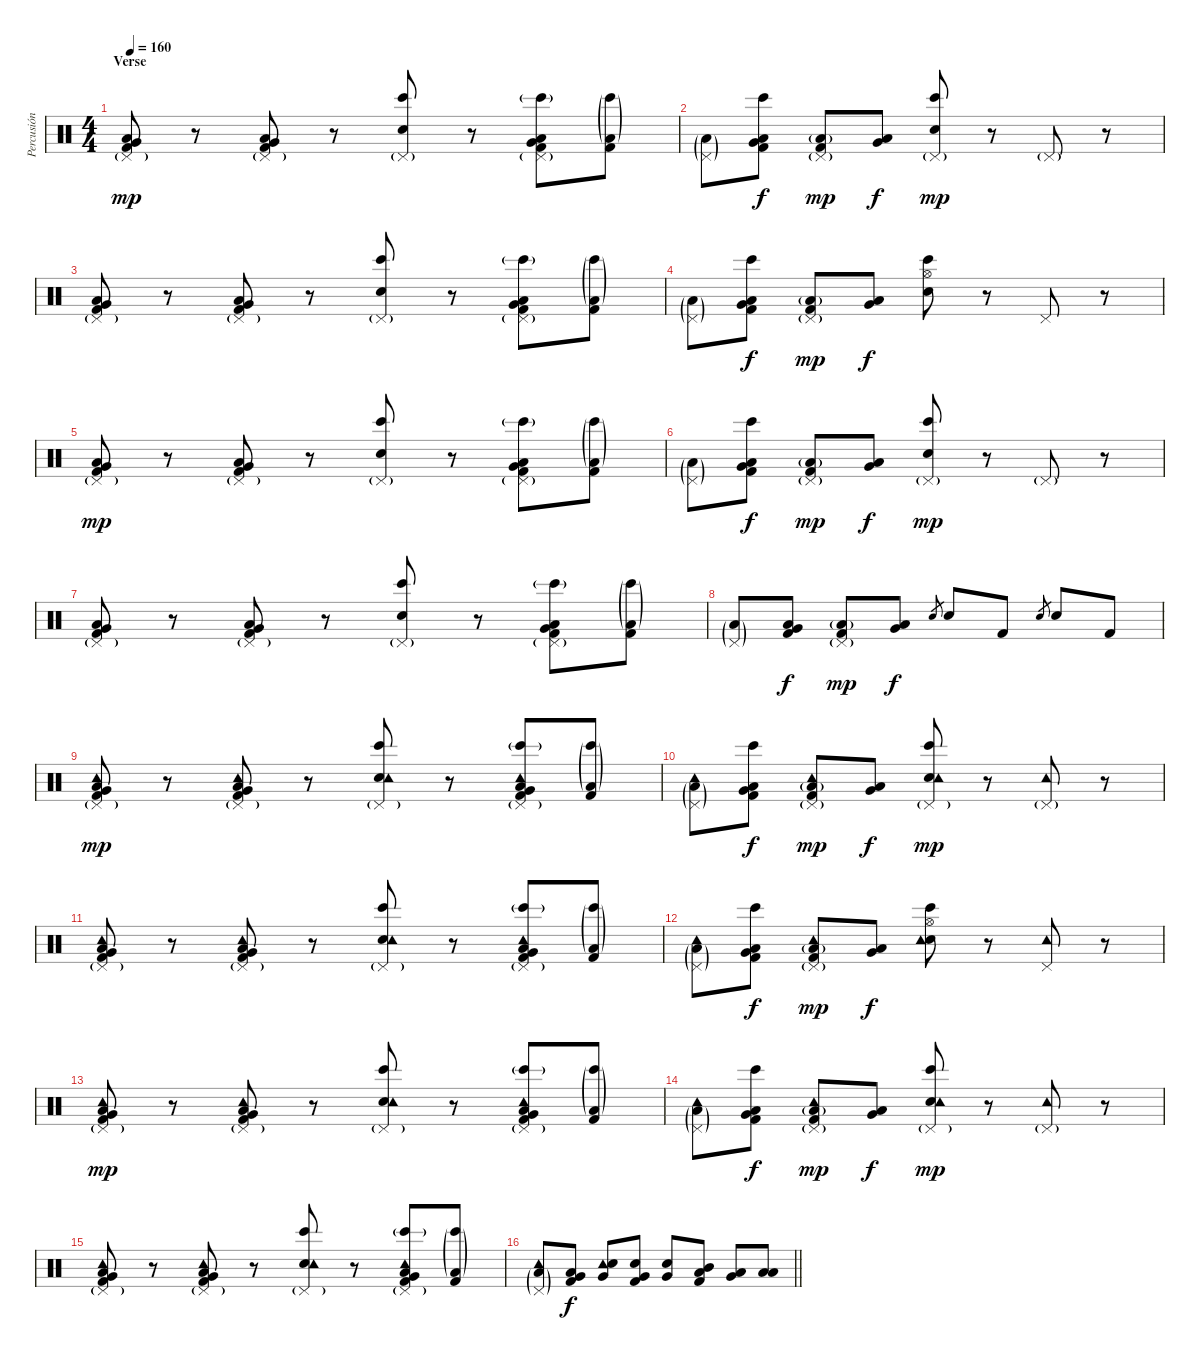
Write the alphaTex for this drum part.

\track ("Percusión" "Percusión") {instrument percussion}
\staff {score}
\articulation defaults
\ts (4 4)
\section ("" "Verse")
\tempo 160
\clef neutral
\ks c
("Pedal Hi-Hat (hit)"{g} "Very Low Tom (hit)" "Low Tom (hit)" "Kick (hit) 2").8{dy mp} r.8 ("Pedal Hi-Hat (hit)"{g} "Very Low Tom (hit)" "Low Tom (hit)" "Kick (hit) 2").8 r.8 ("Pedal Hi-Hat (hit)"{g} "Bongo High (hit)" "Electric Snare (hit)").8 r.8 ("Pedal Hi-Hat (hit)"{g} "Very Low Tom (hit)" "Low Tom (hit)" "Bongo High (hit)"{g} "Kick (hit) 2").8 ("Low Floor Tom (hit)"{g} "Bongo High (hit)"{g} "Kick (hit) 2").8 |
("Pedal Hi-Hat (hit)"{g} "Low Floor Tom (hit)"{g}).8 ("Very Low Tom (hit)" "Low Tom (hit)" "Bongo High (hit)" "Kick (hit) 2").8{dy f} ("Pedal Hi-Hat (hit)"{g} "Low Floor Tom (hit)"{g} "Kick (hit) 2").8{dy mp} ("Very Low Tom (hit)" "Low Tom (hit)").8{dy f} ("Pedal Hi-Hat (hit)"{g} "Bongo High (hit)" "Electric Snare (hit)").8{dy mp} r.8 "Pedal Hi-Hat (hit)"{g}.8 r.8 |
("Pedal Hi-Hat (hit)"{g} "Very Low Tom (hit)" "Low Tom (hit)" "Kick (hit) 2").8 r.8 ("Pedal Hi-Hat (hit)"{g} "Very Low Tom (hit)" "Low Tom (hit)" "Kick (hit) 2").8 r.8 ("Pedal Hi-Hat (hit)"{g} "Bongo High (hit)" "Electric Snare (hit)").8 r.8 ("Pedal Hi-Hat (hit)"{g} "Very Low Tom (hit)" "Low Tom (hit)" "Bongo High (hit)"{g} "Kick (hit) 2").8 ("Low Floor Tom (hit)"{g} "Bongo High (hit)"{g} "Kick (hit) 2").8 |
("Pedal Hi-Hat (hit)"{g} "Low Floor Tom (hit)"{g}).8 ("Very Low Tom (hit)" "Low Tom (hit)" "Bongo High (hit)" "Kick (hit) 2").8{dy f} ("Pedal Hi-Hat (hit)"{g} "Low Floor Tom (hit)"{g} "Kick (hit) 2").8{dy mp} ("Very Low Tom (hit)" "Low Tom (hit)").8{dy f} ("Hi-Hat (open)" "Bongo High (hit)" "Electric Snare (hit)").8 r.8 "Pedal Hi-Hat (hit)".8 r.8 |
("Pedal Hi-Hat (hit)"{g} "Very Low Tom (hit)" "Low Tom (hit)" "Kick (hit) 2").8{dy mp} r.8 ("Pedal Hi-Hat (hit)"{g} "Very Low Tom (hit)" "Low Tom (hit)" "Kick (hit) 2").8 r.8 ("Pedal Hi-Hat (hit)"{g} "Bongo High (hit)" "Electric Snare (hit)").8 r.8 ("Pedal Hi-Hat (hit)"{g} "Very Low Tom (hit)" "Low Tom (hit)" "Bongo High (hit)"{g} "Kick (hit) 2").8 ("Low Floor Tom (hit)"{g} "Bongo High (hit)"{g} "Kick (hit) 2").8 |
("Pedal Hi-Hat (hit)"{g} "Low Floor Tom (hit)"{g}).8 ("Very Low Tom (hit)" "Low Tom (hit)" "Bongo High (hit)" "Kick (hit) 2").8{dy f} ("Pedal Hi-Hat (hit)"{g} "Low Floor Tom (hit)"{g} "Kick (hit) 2").8{dy mp} ("Very Low Tom (hit)" "Low Tom (hit)").8{dy f} ("Pedal Hi-Hat (hit)"{g} "Bongo High (hit)" "Electric Snare (hit)").8{dy mp} r.8 "Pedal Hi-Hat (hit)"{g}.8 r.8 |
("Pedal Hi-Hat (hit)"{g} "Very Low Tom (hit)" "Low Tom (hit)" "Kick (hit) 2").8 r.8 ("Pedal Hi-Hat (hit)"{g} "Very Low Tom (hit)" "Low Tom (hit)" "Kick (hit) 2").8 r.8 ("Pedal Hi-Hat (hit)"{g} "Bongo High (hit)" "Electric Snare (hit)").8 r.8 ("Pedal Hi-Hat (hit)"{g} "Very Low Tom (hit)" "Low Tom (hit)" "Bongo High (hit)"{g} "Kick (hit) 2").8 ("Low Floor Tom (hit)"{g} "Bongo High (hit)"{g} "Kick (hit) 2").8 |
("Pedal Hi-Hat (hit)"{g} "Low Floor Tom (hit)"{g}).8 ("Very Low Tom (hit)" "Low Tom (hit)" "Kick (hit) 2").8{dy f} ("Pedal Hi-Hat (hit)"{g} "Low Floor Tom (hit)"{g} "Kick (hit) 2").8{dy mp} ("Very Low Tom (hit)" "Low Tom (hit)").8{dy f} "Electric Snare (hit)".8{gr} "Electric Snare (hit)".8 "Kick (hit) 2".8 "Electric Snare (hit)".8{gr} "Electric Snare (hit)".8 "Kick (hit) 2".8 |
("Pedal Hi-Hat (hit)"{g} "Very Low Tom (hit)" "Low Tom (hit)" "Tambourine (hit)" "Kick (hit) 2").8{dy mp} r.8 ("Pedal Hi-Hat (hit)"{g} "Very Low Tom (hit)" "Low Tom (hit)" "Tambourine (hit)" "Kick (hit) 2").8 r.8 ("Pedal Hi-Hat (hit)"{g} "Bongo High (hit)" "Electric Snare (hit)" "Tambourine (hit)").8 r.8 ("Pedal Hi-Hat (hit)"{g} "Very Low Tom (hit)" "Low Tom (hit)" "Bongo High (hit)"{g} "Tambourine (hit)" "Kick (hit) 2").8 ("Low Floor Tom (hit)"{g} "Bongo High (hit)"{g} "Kick (hit) 2").8 |
("Pedal Hi-Hat (hit)"{g} "Low Floor Tom (hit)"{g} "Tambourine (hit)").8 ("Very Low Tom (hit)" "Low Tom (hit)" "Bongo High (hit)" "Kick (hit) 2").8{dy f} ("Pedal Hi-Hat (hit)"{g} "Low Floor Tom (hit)"{g} "Tambourine (hit)" "Kick (hit) 2").8{dy mp} ("Very Low Tom (hit)" "Low Tom (hit)").8{dy f} ("Pedal Hi-Hat (hit)"{g} "Bongo High (hit)" "Electric Snare (hit)" "Tambourine (hit)").8{dy mp} r.8 ("Pedal Hi-Hat (hit)"{g} "Tambourine (hit)").8 r.8 |
("Pedal Hi-Hat (hit)"{g} "Very Low Tom (hit)" "Low Tom (hit)" "Tambourine (hit)" "Kick (hit) 2").8 r.8 ("Pedal Hi-Hat (hit)"{g} "Very Low Tom (hit)" "Low Tom (hit)" "Tambourine (hit)" "Kick (hit) 2").8 r.8 ("Pedal Hi-Hat (hit)"{g} "Bongo High (hit)" "Electric Snare (hit)" "Tambourine (hit)").8 r.8 ("Pedal Hi-Hat (hit)"{g} "Very Low Tom (hit)" "Low Tom (hit)" "Bongo High (hit)"{g} "Tambourine (hit)" "Kick (hit) 2").8 ("Low Floor Tom (hit)"{g} "Bongo High (hit)"{g} "Kick (hit) 2").8 |
("Pedal Hi-Hat (hit)"{g} "Low Floor Tom (hit)"{g} "Tambourine (hit)").8 ("Very Low Tom (hit)" "Low Tom (hit)" "Bongo High (hit)" "Kick (hit) 2").8{dy f} ("Pedal Hi-Hat (hit)"{g} "Low Floor Tom (hit)"{g} "Tambourine (hit)" "Kick (hit) 2").8{dy mp} ("Very Low Tom (hit)" "Low Tom (hit)").8{dy f} ("Hi-Hat (open)" "Bongo High (hit)" "Electric Snare (hit)" "Tambourine (hit)").8 r.8 ("Pedal Hi-Hat (hit)" "Tambourine (hit)").8 r.8 |
("Pedal Hi-Hat (hit)"{g} "Very Low Tom (hit)" "Low Tom (hit)" "Tambourine (hit)" "Kick (hit) 2").8{dy mp} r.8 ("Pedal Hi-Hat (hit)"{g} "Very Low Tom (hit)" "Low Tom (hit)" "Tambourine (hit)" "Kick (hit) 2").8 r.8 ("Pedal Hi-Hat (hit)"{g} "Bongo High (hit)" "Electric Snare (hit)" "Tambourine (hit)").8 r.8 ("Pedal Hi-Hat (hit)"{g} "Very Low Tom (hit)" "Low Tom (hit)" "Bongo High (hit)"{g} "Tambourine (hit)" "Kick (hit) 2").8 ("Low Floor Tom (hit)"{g} "Bongo High (hit)"{g} "Kick (hit) 2").8 |
("Pedal Hi-Hat (hit)"{g} "Low Floor Tom (hit)"{g} "Tambourine (hit)").8 ("Very Low Tom (hit)" "Low Tom (hit)" "Bongo High (hit)" "Kick (hit) 2").8{dy f} ("Pedal Hi-Hat (hit)"{g} "Low Floor Tom (hit)"{g} "Tambourine (hit)" "Kick (hit) 2").8{dy mp} ("Very Low Tom (hit)" "Low Tom (hit)").8{dy f} ("Pedal Hi-Hat (hit)"{g} "Bongo High (hit)" "Electric Snare (hit)" "Tambourine (hit)").8{dy mp} r.8 ("Pedal Hi-Hat (hit)"{g} "Tambourine (hit)").8 r.8 |
("Pedal Hi-Hat (hit)"{g} "Very Low Tom (hit)" "Low Tom (hit)" "Tambourine (hit)" "Kick (hit) 2").8 r.8 ("Pedal Hi-Hat (hit)"{g} "Very Low Tom (hit)" "Low Tom (hit)" "Tambourine (hit)" "Kick (hit) 2").8 r.8 ("Pedal Hi-Hat (hit)"{g} "Bongo High (hit)" "Electric Snare (hit)" "Tambourine (hit)").8 r.8 ("Pedal Hi-Hat (hit)"{g} "Very Low Tom (hit)" "Low Tom (hit)" "Bongo High (hit)"{g} "Tambourine (hit)" "Kick (hit) 2").8 ("Low Floor Tom (hit)"{g} "Bongo High (hit)"{g} "Kick (hit) 2").8 |
\barLineRight lightlight
("Pedal Hi-Hat (hit)"{g} "Low Floor Tom (hit)"{g} "Tambourine (hit)").8 ("Very Low Tom (hit)" "Low Tom (hit)" "Kick (hit) 2").8{dy f} ("Very Low Tom (hit)" "Tambourine (hit)" "Electric Snare (hit)").8 ("Very Low Tom (hit)" "Electric Snare (hit)" "Kick (hit) 2").8 ("Very Low Tom (hit)" "Electric Snare (hit)").8 ("Mid Tom (hit)" "Low Tom (hit)" "Kick (hit) 2").8 ("Very Low Tom (hit)" "Low Tom (hit)").8 ("Low Floor Tom (hit)" "Low Tom (hit)").8
